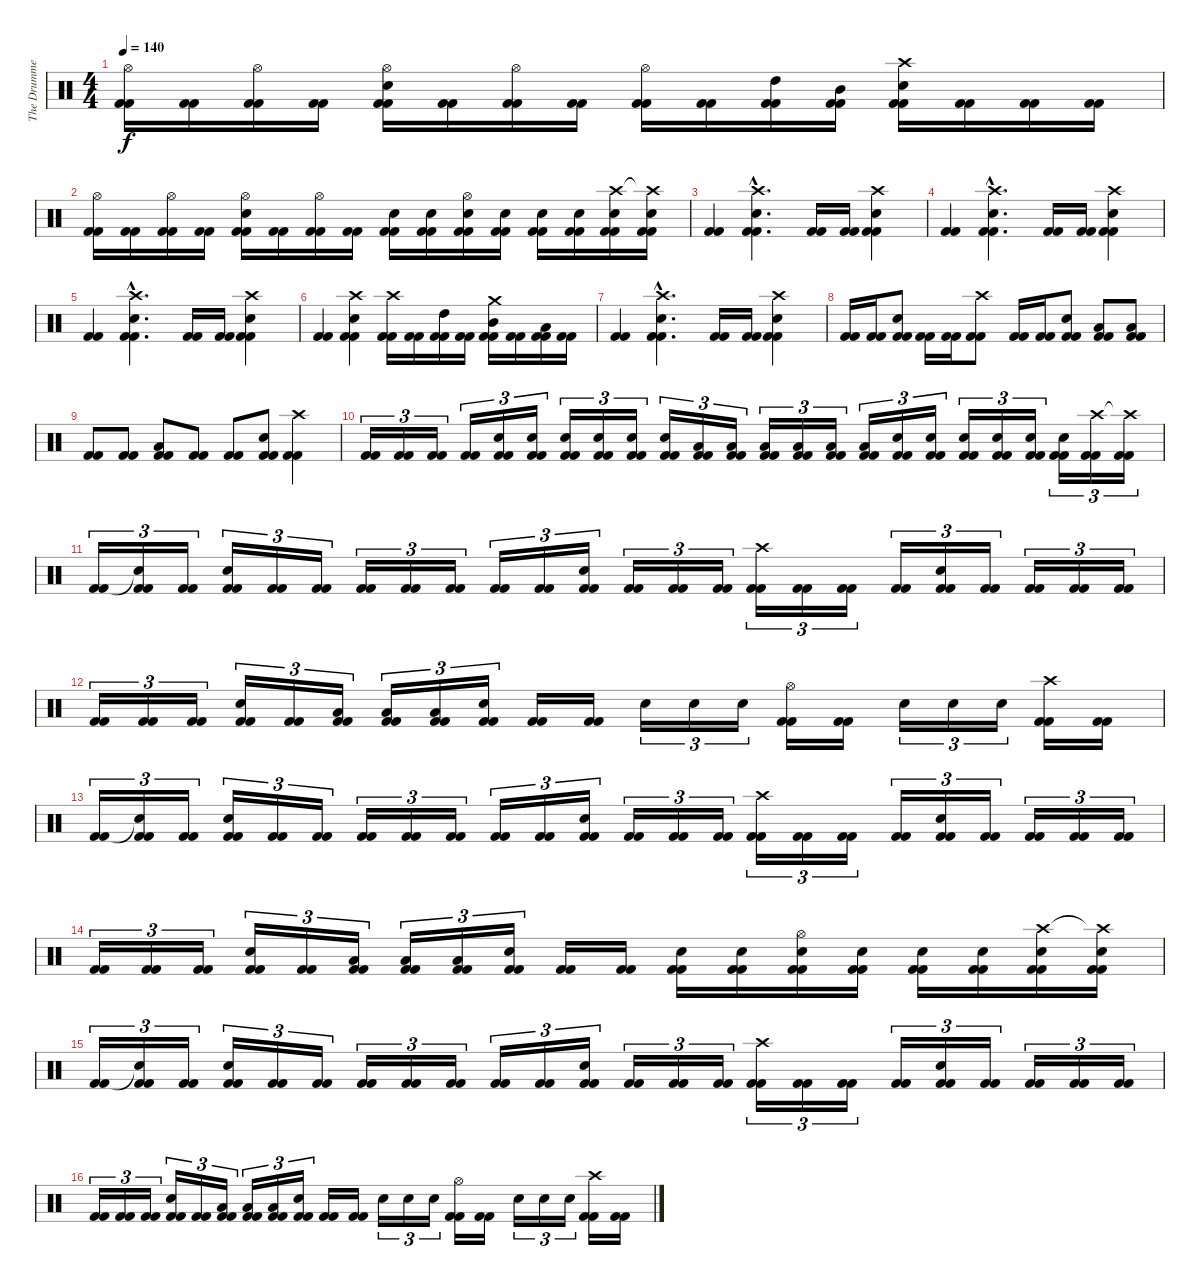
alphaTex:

\track ("The Drummer" "The Drumme") {instrument percussion}
\staff {score}
\articulation defaults
\ts (4 4)
\tempo 140
\clef neutral
\ks c
("Hi-Hat (open)" "Kick (hit) 2" "Kick (hit) 2").16{dy f} ("Kick (hit) 2" "Kick (hit) 2").16 ("Hi-Hat (open)" "Kick (hit) 2" "Kick (hit) 2").16 ("Kick (hit) 2" "Kick (hit) 2").16 ("Hi-Hat (open)" "Electric Snare (hit)" "Kick (hit) 2" "Kick (hit) 2").16 ("Kick (hit) 2" "Kick (hit) 2").16 ("Hi-Hat (open)" "Kick (hit) 2" "Kick (hit) 2").16 ("Kick (hit) 2" "Kick (hit) 2").16 ("Hi-Hat (open)" "Kick (hit) 2" "Kick (hit) 2").16 ("Kick (hit) 2" "Kick (hit) 2").16 ("High Tom (hit)" "Kick (hit) 2" "Kick (hit) 2").16 ("Mid Tom (hit)" "Kick (hit) 2" "Kick (hit) 2").16 ("Crash high (hit)" "Electric Snare (hit)" "Kick (hit) 2" "Kick (hit) 2").16 ("Kick (hit) 2" "Kick (hit) 2").16 ("Kick (hit) 2" "Kick (hit) 2").16 ("Kick (hit) 2" "Kick (hit) 2").16 |
("Hi-Hat (open)" "Kick (hit) 2" "Kick (hit) 2").16 ("Kick (hit) 2" "Kick (hit) 2").16 ("Hi-Hat (open)" "Kick (hit) 2" "Kick (hit) 2").16 ("Kick (hit) 2" "Kick (hit) 2").16 ("Hi-Hat (open)" "Electric Snare (hit)" "Kick (hit) 2" "Kick (hit) 2").16 ("Kick (hit) 2" "Kick (hit) 2").16 ("Hi-Hat (open)" "Kick (hit) 2" "Kick (hit) 2").16 ("Kick (hit) 2" "Kick (hit) 2").16 ("Electric Snare (hit)" "Kick (hit) 2" "Kick (hit) 2").16 ("Electric Snare (hit)" "Kick (hit) 2" "Kick (hit) 2").16 ("Hi-Hat (open)" "Electric Snare (hit)" "Kick (hit) 2" "Kick (hit) 2").16 ("Electric Snare (hit)" "Kick (hit) 2" "Kick (hit) 2").16 ("Electric Snare (hit)" "Kick (hit) 2" "Kick (hit) 2").16 ("Electric Snare (hit)" "Kick (hit) 2" "Kick (hit) 2").16 ("Crash high (hit)" "Electric Snare (hit)" "Kick (hit) 2" "Kick (hit) 2").16 ("Crash high (hit)"{t} "Electric Snare (hit)" "Kick (hit) 2" "Kick (hit) 2").16 |
("Kick (hit) 2" "Kick (hit) 2").4 ("Crash high (hit)"{hac} "Electric Snare (hit)"{hac} "Kick (hit) 2"{hac} "Kick (hit) 2"{hac}).4{d} ("Kick (hit) 2" "Kick (hit) 2").16 ("Kick (hit) 2" "Kick (hit) 2").16 ("Crash high (hit)" "Electric Snare (hit)" "Kick (hit) 2" "Kick (hit) 2").4 |
("Kick (hit) 2" "Kick (hit) 2").4 ("Crash high (hit)"{hac} "Electric Snare (hit)"{hac} "Kick (hit) 2"{hac} "Kick (hit) 2"{hac}).4{d} ("Kick (hit) 2" "Kick (hit) 2").16 ("Kick (hit) 2" "Kick (hit) 2").16 ("Crash high (hit)" "Electric Snare (hit)" "Kick (hit) 2" "Kick (hit) 2").4 |
("Kick (hit) 2" "Kick (hit) 2").4 ("Crash high (hit)"{hac} "Electric Snare (hit)"{hac} "Kick (hit) 2"{hac} "Kick (hit) 2"{hac}).4{d} ("Kick (hit) 2" "Kick (hit) 2").16 ("Kick (hit) 2" "Kick (hit) 2").16 ("Crash high (hit)" "Electric Snare (hit)" "Kick (hit) 2" "Kick (hit) 2").4 |
("Kick (hit) 2" "Kick (hit) 2").4 ("Crash high (hit)" "Electric Snare (hit)" "Kick (hit) 2" "Kick (hit) 2").4 ("Crash high (hit)" "Kick (hit) 2" "Kick (hit) 2").16 ("Kick (hit) 2" "Kick (hit) 2").16 ("High Tom (hit)" "Kick (hit) 2" "Kick (hit) 2").16 ("Kick (hit) 2" "Kick (hit) 2").16 ("Crash medium (hit)" "Mid Tom (hit)" "Kick (hit) 2" "Kick (hit) 2").16 ("Kick (hit) 2" "Kick (hit) 2").16 ("Low Tom (hit)" "Kick (hit) 2" "Kick (hit) 2").16 ("Kick (hit) 2" "Kick (hit) 2").16 |
("Kick (hit) 2" "Kick (hit) 2").4 ("Crash high (hit)"{hac} "Electric Snare (hit)"{hac} "Kick (hit) 2"{hac} "Kick (hit) 2"{hac}).4{d} ("Kick (hit) 2" "Kick (hit) 2").16 ("Kick (hit) 2" "Kick (hit) 2").16 ("Crash high (hit)" "Electric Snare (hit)" "Kick (hit) 2" "Kick (hit) 2").4 |
("Kick (hit) 2" "Kick (hit) 2").16 ("Kick (hit) 2" "Kick (hit) 2").16 ("Electric Snare (hit)" "Kick (hit) 2" "Kick (hit) 2").8 ("Kick (hit) 2" "Kick (hit) 2").16 ("Kick (hit) 2" "Kick (hit) 2").16 ("Crash high (hit)" "Kick (hit) 2" "Kick (hit) 2").8 ("Kick (hit) 2" "Kick (hit) 2").16 ("Kick (hit) 2" "Kick (hit) 2").16 ("Electric Snare (hit)" "Kick (hit) 2" "Kick (hit) 2").8 ("Low Tom (hit)" "Kick (hit) 2" "Kick (hit) 2").8 ("Low Tom (hit)" "Kick (hit) 2" "Kick (hit) 2").8 |
("Kick (hit) 2" "Kick (hit) 2").8 ("Kick (hit) 2" "Kick (hit) 2").8 ("Low Tom (hit)" "Kick (hit) 2" "Kick (hit) 2").8 ("Kick (hit) 2" "Kick (hit) 2").8 ("Kick (hit) 2" "Kick (hit) 2").8 ("Electric Snare (hit)" "Kick (hit) 2" "Kick (hit) 2").8 ("Crash high (hit)" "Kick (hit) 2" "Kick (hit) 2").4 |
("Kick (hit) 2" "Kick (hit) 2").16{tu (3 2)} ("Kick (hit) 2" "Kick (hit) 2").16{tu (3 2)} ("Kick (hit) 2" "Kick (hit) 2").16{tu (3 2)} ("Kick (hit) 2" "Kick (hit) 2").16{tu (3 2)} ("Electric Snare (hit)" "Kick (hit) 2" "Kick (hit) 2").16{tu (3 2)} ("Electric Snare (hit)" "Kick (hit) 2" "Kick (hit) 2").16{tu (3 2)} ("Electric Snare (hit)" "Kick (hit) 2" "Kick (hit) 2").16{tu (3 2)} ("Electric Snare (hit)" "Kick (hit) 2" "Kick (hit) 2").16{tu (3 2)} ("Electric Snare (hit)" "Kick (hit) 2" "Kick (hit) 2").16{tu (3 2)} ("Electric Snare (hit)" "Kick (hit) 2" "Kick (hit) 2").16{tu (3 2)} ("Low Tom (hit)" "Kick (hit) 2" "Kick (hit) 2").16{tu (3 2)} ("Low Tom (hit)" "Kick (hit) 2" "Kick (hit) 2").16{tu (3 2)} ("Low Tom (hit)" "Kick (hit) 2" "Kick (hit) 2").16{tu (3 2)} ("Low Tom (hit)" "Kick (hit) 2" "Kick (hit) 2").16{tu (3 2)} ("Low Tom (hit)" "Kick (hit) 2" "Kick (hit) 2").16{tu (3 2)} ("Low Tom (hit)" "Kick (hit) 2" "Kick (hit) 2").16{tu (3 2)} ("Electric Snare (hit)" "Kick (hit) 2" "Kick (hit) 2").16{tu (3 2)} ("Electric Snare (hit)" "Kick (hit) 2" "Kick (hit) 2").16{tu (3 2)} ("Electric Snare (hit)" "Kick (hit) 2" "Kick (hit) 2").16{tu (3 2)} ("Electric Snare (hit)" "Kick (hit) 2" "Kick (hit) 2").16{tu (3 2)} ("Electric Snare (hit)" "Kick (hit) 2" "Kick (hit) 2").16{tu (3 2)} ("Electric Snare (hit)" "Kick (hit) 2" "Kick (hit) 2").16{tu (3 2)} ("Crash high (hit)" "Kick (hit) 2" "Kick (hit) 2").16{tu (3 2)} ("Crash high (hit)"{t} "Kick (hit) 2" "Kick (hit) 2").16{tu (3 2)} |
("Kick (hit) 2" "Kick (hit) 2").16{tu (3 2)} ("Snare (hit)"{t} "Kick (hit) 2" "Kick (hit) 2").16{tu (3 2)} ("Kick (hit) 2" "Kick (hit) 2").16{tu (3 2)} ("Electric Snare (hit)" "Kick (hit) 2" "Kick (hit) 2").16{tu (3 2)} ("Kick (hit) 2" "Kick (hit) 2").16{tu (3 2)} ("Kick (hit) 2" "Kick (hit) 2").16{tu (3 2)} ("Kick (hit) 2" "Kick (hit) 2").16{tu (3 2)} ("Kick (hit) 2" "Kick (hit) 2").16{tu (3 2)} ("Kick (hit) 2" "Kick (hit) 2").16{tu (3 2)} ("Kick (hit) 2" "Kick (hit) 2").16{tu (3 2)} ("Kick (hit) 2" "Kick (hit) 2").16{tu (3 2)} ("Electric Snare (hit)" "Kick (hit) 2" "Kick (hit) 2").16{tu (3 2)} ("Kick (hit) 2" "Kick (hit) 2").16{tu (3 2)} ("Kick (hit) 2" "Kick (hit) 2").16{tu (3 2)} ("Kick (hit) 2" "Kick (hit) 2").16{tu (3 2)} ("Crash high (hit)" "Kick (hit) 2" "Kick (hit) 2").16{tu (3 2)} ("Kick (hit) 2" "Kick (hit) 2").16{tu (3 2)} ("Kick (hit) 2" "Kick (hit) 2").16{tu (3 2)} ("Kick (hit) 2" "Kick (hit) 2").16{tu (3 2)} ("Electric Snare (hit)" "Kick (hit) 2" "Kick (hit) 2").16{tu (3 2)} ("Kick (hit) 2" "Kick (hit) 2").16{tu (3 2)} ("Kick (hit) 2" "Kick (hit) 2").16{tu (3 2)} ("Kick (hit) 2" "Kick (hit) 2").16{tu (3 2)} ("Kick (hit) 2" "Kick (hit) 2").16{tu (3 2)} |
("Kick (hit) 2" "Kick (hit) 2").16{tu (3 2)} ("Kick (hit) 2" "Kick (hit) 2").16{tu (3 2)} ("Kick (hit) 2" "Kick (hit) 2").16{tu (3 2)} ("Electric Snare (hit)" "Kick (hit) 2" "Kick (hit) 2").16{tu (3 2)} ("Kick (hit) 2" "Kick (hit) 2").16{tu (3 2)} ("Low Tom (hit)" "Kick (hit) 2" "Kick (hit) 2").16{tu (3 2)} ("Low Tom (hit)" "Kick (hit) 2" "Kick (hit) 2").16{tu (3 2)} ("Low Tom (hit)" "Kick (hit) 2" "Kick (hit) 2").16{tu (3 2)} ("Electric Snare (hit)" "Kick (hit) 2" "Kick (hit) 2").16{tu (3 2)} ("Kick (hit) 2" "Kick (hit) 2").16 ("Kick (hit) 2" "Kick (hit) 2").16 "Electric Snare (hit)".16{tu (3 2)} "Electric Snare (hit)".16{tu (3 2)} "Electric Snare (hit)".16{tu (3 2)} ("Hi-Hat (open)" "Kick (hit) 2" "Kick (hit) 2").16 ("Kick (hit) 2" "Kick (hit) 2").16 "Electric Snare (hit)".16{tu (3 2)} "Electric Snare (hit)".16{tu (3 2)} "Electric Snare (hit)".16{tu (3 2)} ("Crash high (hit)" "Kick (hit) 2" "Kick (hit) 2").16 ("Kick (hit) 2" "Kick (hit) 2").16 |
("Kick (hit) 2" "Kick (hit) 2").16{tu (3 2)} ("Snare (hit)"{t} "Kick (hit) 2" "Kick (hit) 2").16{tu (3 2)} ("Kick (hit) 2" "Kick (hit) 2").16{tu (3 2)} ("Electric Snare (hit)" "Kick (hit) 2" "Kick (hit) 2").16{tu (3 2)} ("Kick (hit) 2" "Kick (hit) 2").16{tu (3 2)} ("Kick (hit) 2" "Kick (hit) 2").16{tu (3 2)} ("Kick (hit) 2" "Kick (hit) 2").16{tu (3 2)} ("Kick (hit) 2" "Kick (hit) 2").16{tu (3 2)} ("Kick (hit) 2" "Kick (hit) 2").16{tu (3 2)} ("Kick (hit) 2" "Kick (hit) 2").16{tu (3 2)} ("Kick (hit) 2" "Kick (hit) 2").16{tu (3 2)} ("Electric Snare (hit)" "Kick (hit) 2" "Kick (hit) 2").16{tu (3 2)} ("Kick (hit) 2" "Kick (hit) 2").16{tu (3 2)} ("Kick (hit) 2" "Kick (hit) 2").16{tu (3 2)} ("Kick (hit) 2" "Kick (hit) 2").16{tu (3 2)} ("Crash high (hit)" "Kick (hit) 2" "Kick (hit) 2").16{tu (3 2)} ("Kick (hit) 2" "Kick (hit) 2").16{tu (3 2)} ("Kick (hit) 2" "Kick (hit) 2").16{tu (3 2)} ("Kick (hit) 2" "Kick (hit) 2").16{tu (3 2)} ("Electric Snare (hit)" "Kick (hit) 2" "Kick (hit) 2").16{tu (3 2)} ("Kick (hit) 2" "Kick (hit) 2").16{tu (3 2)} ("Kick (hit) 2" "Kick (hit) 2").16{tu (3 2)} ("Kick (hit) 2" "Kick (hit) 2").16{tu (3 2)} ("Kick (hit) 2" "Kick (hit) 2").16{tu (3 2)} |
("Kick (hit) 2" "Kick (hit) 2").16{tu (3 2)} ("Kick (hit) 2" "Kick (hit) 2").16{tu (3 2)} ("Kick (hit) 2" "Kick (hit) 2").16{tu (3 2)} ("Electric Snare (hit)" "Kick (hit) 2" "Kick (hit) 2").16{tu (3 2)} ("Kick (hit) 2" "Kick (hit) 2").16{tu (3 2)} ("Low Tom (hit)" "Kick (hit) 2" "Kick (hit) 2").16{tu (3 2)} ("Low Tom (hit)" "Kick (hit) 2" "Kick (hit) 2").16{tu (3 2)} ("Low Tom (hit)" "Kick (hit) 2" "Kick (hit) 2").16{tu (3 2)} ("Electric Snare (hit)" "Kick (hit) 2" "Kick (hit) 2").16{tu (3 2)} ("Kick (hit) 2" "Kick (hit) 2").16 ("Kick (hit) 2" "Kick (hit) 2").16 ("Electric Snare (hit)" "Kick (hit) 2" "Kick (hit) 2").16 ("Electric Snare (hit)" "Kick (hit) 2" "Kick (hit) 2").16 ("Hi-Hat (open)" "Electric Snare (hit)" "Kick (hit) 2" "Kick (hit) 2").16 ("Electric Snare (hit)" "Kick (hit) 2" "Kick (hit) 2").16 ("Electric Snare (hit)" "Kick (hit) 2" "Kick (hit) 2").16 ("Electric Snare (hit)" "Kick (hit) 2" "Kick (hit) 2").16 ("Crash high (hit)" "Electric Snare (hit)" "Kick (hit) 2" "Kick (hit) 2").16 ("Crash high (hit)"{t} "Electric Snare (hit)" "Kick (hit) 2" "Kick (hit) 2").16 |
("Kick (hit) 2" "Kick (hit) 2").16{tu (3 2)} ("Snare (hit)"{t} "Kick (hit) 2" "Kick (hit) 2").16{tu (3 2)} ("Kick (hit) 2" "Kick (hit) 2").16{tu (3 2)} ("Electric Snare (hit)" "Kick (hit) 2" "Kick (hit) 2").16{tu (3 2)} ("Kick (hit) 2" "Kick (hit) 2").16{tu (3 2)} ("Kick (hit) 2" "Kick (hit) 2").16{tu (3 2)} ("Kick (hit) 2" "Kick (hit) 2").16{tu (3 2)} ("Kick (hit) 2" "Kick (hit) 2").16{tu (3 2)} ("Kick (hit) 2" "Kick (hit) 2").16{tu (3 2)} ("Kick (hit) 2" "Kick (hit) 2").16{tu (3 2)} ("Kick (hit) 2" "Kick (hit) 2").16{tu (3 2)} ("Electric Snare (hit)" "Kick (hit) 2" "Kick (hit) 2").16{tu (3 2)} ("Kick (hit) 2" "Kick (hit) 2").16{tu (3 2)} ("Kick (hit) 2" "Kick (hit) 2").16{tu (3 2)} ("Kick (hit) 2" "Kick (hit) 2").16{tu (3 2)} ("Crash high (hit)" "Kick (hit) 2" "Kick (hit) 2").16{tu (3 2)} ("Kick (hit) 2" "Kick (hit) 2").16{tu (3 2)} ("Kick (hit) 2" "Kick (hit) 2").16{tu (3 2)} ("Kick (hit) 2" "Kick (hit) 2").16{tu (3 2)} ("Electric Snare (hit)" "Kick (hit) 2" "Kick (hit) 2").16{tu (3 2)} ("Kick (hit) 2" "Kick (hit) 2").16{tu (3 2)} ("Kick (hit) 2" "Kick (hit) 2").16{tu (3 2)} ("Kick (hit) 2" "Kick (hit) 2").16{tu (3 2)} ("Kick (hit) 2" "Kick (hit) 2").16{tu (3 2)} |
("Kick (hit) 2" "Kick (hit) 2").16{tu (3 2)} ("Kick (hit) 2" "Kick (hit) 2").16{tu (3 2)} ("Kick (hit) 2" "Kick (hit) 2").16{tu (3 2)} ("Electric Snare (hit)" "Kick (hit) 2" "Kick (hit) 2").16{tu (3 2)} ("Kick (hit) 2" "Kick (hit) 2").16{tu (3 2)} ("Low Tom (hit)" "Kick (hit) 2" "Kick (hit) 2").16{tu (3 2)} ("Low Tom (hit)" "Kick (hit) 2" "Kick (hit) 2").16{tu (3 2)} ("Low Tom (hit)" "Kick (hit) 2" "Kick (hit) 2").16{tu (3 2)} ("Electric Snare (hit)" "Kick (hit) 2" "Kick (hit) 2").16{tu (3 2)} ("Kick (hit) 2" "Kick (hit) 2").16 ("Kick (hit) 2" "Kick (hit) 2").16 "Electric Snare (hit)".16{tu (3 2)} "Electric Snare (hit)".16{tu (3 2)} "Electric Snare (hit)".16{tu (3 2)} ("Hi-Hat (open)" "Kick (hit) 2" "Kick (hit) 2").16 ("Kick (hit) 2" "Kick (hit) 2").16 "Electric Snare (hit)".16{tu (3 2)} "Electric Snare (hit)".16{tu (3 2)} "Electric Snare (hit)".16{tu (3 2)} ("Crash high (hit)" "Kick (hit) 2" "Kick (hit) 2").16 ("Kick (hit) 2" "Kick (hit) 2").16
